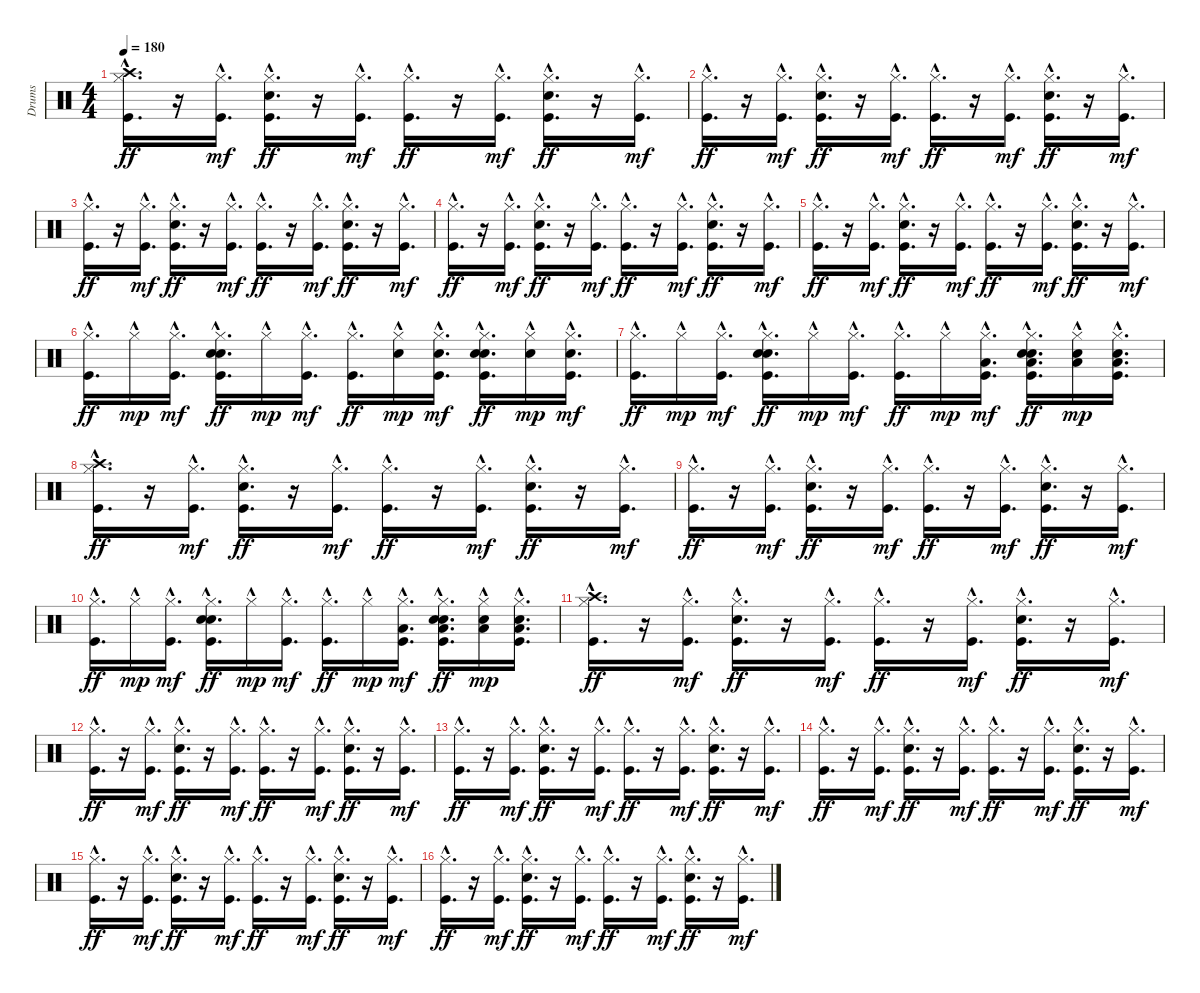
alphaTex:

\track ("Drums" "Drums") {instrument percussion}
\staff {score}
\articulation defaults
\ts (4 4)
\tempo 180
\clef neutral
\ks c
("Crash high (hit)"{hac} "Hi-Hat (closed)"{hac} "Kick (hit)"{hac}).16{d dy ff} r.16 ("Kick (hit)"{hac} "Hi-Hat (closed)"{hac}).16{d dy mf} ("Snare (hit) 2"{hac} "Hi-Hat (closed)"{hac} "Kick (hit)"{hac}).16{d dy ff} r.16 ("Kick (hit)"{hac} "Hi-Hat (closed)"{hac}).16{d dy mf} ("Kick (hit)"{hac} "Hi-Hat (closed)"{hac}).16{d dy ff} r.16 ("Kick (hit)"{hac} "Hi-Hat (closed)"{hac}).16{d dy mf} ("Hi-Hat (closed)"{hac} "Snare (hit) 2"{hac} "Kick (hit)"{hac}).16{d dy ff} r.16 ("Kick (hit)"{hac} "Hi-Hat (closed)"{hac}).16{d dy mf} |
("Kick (hit)"{hac} "Hi-Hat (closed)"{hac}).16{d dy ff} r.16 ("Kick (hit)"{hac} "Hi-Hat (closed)"{hac}).16{d dy mf} ("Kick (hit)"{hac} "Hi-Hat (closed)"{hac} "Snare (hit) 2"{hac}).16{d dy ff} r.16 ("Kick (hit)"{hac} "Hi-Hat (closed)"{hac}).16{d dy mf} ("Kick (hit)"{hac} "Hi-Hat (closed)"{hac}).16{d dy ff} r.16 ("Kick (hit)"{hac} "Hi-Hat (closed)"{hac}).16{d dy mf} ("Kick (hit)"{hac} "Hi-Hat (closed)"{hac} "Snare (hit) 2"{hac}).16{d dy ff} r.16 ("Hi-Hat (closed)"{hac} "Kick (hit)"{hac}).16{d dy mf} |
("Kick (hit)"{hac} "Hi-Hat (closed)"{hac}).16{d dy ff} r.16 ("Kick (hit)"{hac} "Hi-Hat (closed)"{hac}).16{d dy mf} ("Hi-Hat (closed)"{hac} "Snare (hit) 2"{hac} "Kick (hit)"{hac}).16{d dy ff} r.16 ("Hi-Hat (closed)"{hac} "Kick (hit)"{hac}).16{d dy mf} ("Kick (hit)"{hac} "Hi-Hat (closed)"{hac}).16{d dy ff} r.16 ("Kick (hit)"{hac} "Hi-Hat (closed)"{hac}).16{d dy mf} ("Hi-Hat (closed)"{hac} "Snare (hit) 2"{hac} "Kick (hit)"{hac}).16{d dy ff} r.16 ("Kick (hit)"{hac} "Hi-Hat (closed)"{hac}).16{d dy mf} |
("Kick (hit)"{hac} "Hi-Hat (closed)"{hac}).16{d dy ff} r.16 ("Kick (hit)"{hac} "Hi-Hat (closed)"{hac}).16{d dy mf} ("Kick (hit)"{hac} "Snare (hit) 2"{hac} "Hi-Hat (closed)"{hac}).16{d dy ff} r.16 ("Hi-Hat (closed)"{hac} "Kick (hit)"{hac}).16{d dy mf} ("Kick (hit)"{hac} "Hi-Hat (closed)"{hac}).16{d dy ff} r.16 ("Kick (hit)"{hac} "Hi-Hat (closed)"{hac}).16{d dy mf} ("Kick (hit)"{hac} "Snare (hit) 2"{hac} "Hi-Hat (closed)"{hac}).16{d dy ff} r.16 ("Hi-Hat (closed)"{hac} "Kick (hit)"{hac}).16{d dy mf} |
("Hi-Hat (closed)"{hac} "Kick (hit)"{hac}).16{d dy ff} r.16 ("Kick (hit)"{hac} "Hi-Hat (closed)"{hac}).16{d dy mf} ("Kick (hit)"{hac} "Snare (hit) 2"{hac} "Hi-Hat (closed)"{hac}).16{d dy ff} r.16 ("Kick (hit)"{hac} "Hi-Hat (closed)"{hac}).16{d dy mf} ("Hi-Hat (closed)"{hac} "Kick (hit)"{hac}).16{d dy ff} r.16 ("Kick (hit)"{hac} "Hi-Hat (closed)"{hac}).16{d dy mf} ("Kick (hit)"{hac} "Snare (hit) 2"{hac} "Hi-Hat (closed)"{hac}).16{d dy ff} r.16 ("Kick (hit)"{hac} "Hi-Hat (closed)"{hac}).16{d dy mf} |
("Kick (hit)"{hac} "Hi-Hat (closed)"{hac}).16{d dy ff} "Hi-Hat (closed)"{hac}.16{dy mp} ("Kick (hit)"{hac} "Hi-Hat (closed)"{hac}).16{d dy mf} ("Kick (hit)"{hac} "Snare (hit) 2"{hac} "Hi-Hat (closed)"{hac} "Hand Clap (hit)"{hac}).16{d dy ff} "Hi-Hat (closed)"{hac}.16{dy mp} ("Hi-Hat (closed)"{hac} "Kick (hit)"{hac}).16{d dy mf} ("Kick (hit)"{hac} "Hi-Hat (closed)"{hac}).16{d dy ff} ("Snare (hit) 2"{hac} "Hi-Hat (closed)"{hac}).16{dy mp} ("Hi-Hat (closed)"{hac} "Snare (hit) 2"{hac} "Kick (hit)"{hac}).16{d dy mf} ("Hand Clap (hit)"{hac} "Hi-Hat (closed)"{hac} "Kick (hit)"{hac} "Snare (hit) 2"{hac}).16{d dy ff} ("Snare (hit) 2"{hac} "Hi-Hat (closed)"{hac}).16{dy mp} ("Kick (hit)"{hac} "Snare (hit) 2"{hac} "Hi-Hat (closed)"{hac}).16{d dy mf} |
("Kick (hit)"{hac} "Hi-Hat (closed)"{hac}).16{d dy ff} "Hi-Hat (closed)"{hac}.16{dy mp} ("Kick (hit)"{hac} "Hi-Hat (closed)"{hac}).16{d dy mf} ("Hi-Hat (closed)"{hac} "Snare (hit) 2"{hac} "Kick (hit)"{hac} "Hand Clap (hit)"{hac}).16{d dy ff} "Hi-Hat (closed)"{hac}.16{dy mp} ("Hi-Hat (closed)"{hac} "Kick (hit)"{hac}).16{d dy mf} ("Hi-Hat (closed)"{hac} "Kick (hit)"{hac}).16{d dy ff} "Hi-Hat (closed)"{hac}.16{dy mp} ("Low Tom (hit)"{hac} "Hi-Hat (closed)"{hac} "Kick (hit)"{hac}).16{d dy mf} ("Low Tom (hit)"{hac} "Hand Clap (hit)"{hac} "Kick (hit)"{hac} "Snare (hit) 2"{hac} "Hi-Hat (closed)"{hac}).16{d dy ff} ("Low Tom (hit)"{hac} "Hi-Hat (closed)"{hac} "Snare (hit) 2"{hac}).16{dy mp} ("Kick (hit)"{hac} "Low Tom (hit)"{hac} "Hi-Hat (closed)"{hac} "Snare (hit) 2"{hac}).16{d} |
("Crash high (hit)"{hac} "Hi-Hat (closed)"{hac} "Kick (hit)"{hac}).16{d dy ff} r.16 ("Kick (hit)"{hac} "Hi-Hat (closed)"{hac}).16{d dy mf} ("Kick (hit)"{hac} "Snare (hit) 2"{hac} "Hi-Hat (closed)"{hac}).16{d dy ff} r.16 ("Kick (hit)"{hac} "Hi-Hat (closed)"{hac}).16{d dy mf} ("Hi-Hat (closed)"{hac} "Kick (hit)"{hac}).16{d dy ff} r.16 ("Kick (hit)"{hac} "Hi-Hat (closed)"{hac}).16{d dy mf} ("Kick (hit)"{hac} "Snare (hit) 2"{hac} "Hi-Hat (closed)"{hac}).16{d dy ff} r.16 ("Kick (hit)"{hac} "Hi-Hat (closed)"{hac}).16{d dy mf} |
("Kick (hit)"{hac} "Hi-Hat (closed)"{hac}).16{d dy ff} r.16 ("Kick (hit)"{hac} "Hi-Hat (closed)"{hac}).16{d dy mf} ("Hi-Hat (closed)"{hac} "Snare (hit) 2"{hac} "Kick (hit)"{hac}).16{d dy ff} r.16 ("Kick (hit)"{hac} "Hi-Hat (closed)"{hac}).16{d dy mf} ("Hi-Hat (closed)"{hac} "Kick (hit)"{hac}).16{d dy ff} r.16 ("Kick (hit)"{hac} "Hi-Hat (closed)"{hac}).16{d dy mf} ("Hi-Hat (closed)"{hac} "Snare (hit) 2"{hac} "Kick (hit)"{hac}).16{d dy ff} r.16 ("Kick (hit)"{hac} "Hi-Hat (closed)"{hac}).16{d dy mf} |
("Hi-Hat (closed)"{hac} "Kick (hit)"{hac}).16{d dy ff} "Hi-Hat (closed)"{hac}.16{dy mp} ("Kick (hit)"{hac} "Hi-Hat (closed)"{hac}).16{d dy mf} ("Hi-Hat (closed)"{hac} "Snare (hit) 2"{hac} "Kick (hit)"{hac} "Hand Clap (hit)"{hac}).16{d dy ff} "Hi-Hat (closed)"{hac}.16{dy mp} ("Hi-Hat (closed)"{hac} "Kick (hit)"{hac}).16{d dy mf} ("Kick (hit)"{hac} "Hi-Hat (closed)"{hac}).16{d dy ff} "Hi-Hat (closed)"{hac}.16{dy mp} ("Kick (hit)"{hac} "Hi-Hat (closed)"{hac} "Low Tom (hit)"{hac}).16{d dy mf} ("Hand Clap (hit)"{hac} "Low Tom (hit)"{hac} "Kick (hit)"{hac} "Snare (hit) 2"{hac} "Hi-Hat (closed)"{hac}).16{d dy ff} ("Low Tom (hit)"{hac} "Hi-Hat (closed)"{hac} "Snare (hit) 2"{hac}).16{dy mp} ("Kick (hit)"{hac} "Low Tom (hit)"{hac} "Hi-Hat (closed)"{hac} "Snare (hit) 2"{hac}).16{d} |
("Hi-Hat (closed)"{hac} "Kick (hit)"{hac} "Crash high (hit)"{hac}).16{d dy ff} r.16 ("Kick (hit)"{hac} "Hi-Hat (closed)"{hac}).16{d dy mf} ("Kick (hit)"{hac} "Snare (hit) 2"{hac} "Hi-Hat (closed)"{hac}).16{d dy ff} r.16 ("Hi-Hat (closed)"{hac} "Kick (hit)"{hac}).16{d dy mf} ("Hi-Hat (closed)"{hac} "Kick (hit)"{hac}).16{d dy ff} r.16 ("Kick (hit)"{hac} "Hi-Hat (closed)"{hac}).16{d dy mf} ("Kick (hit)"{hac} "Snare (hit) 2"{hac} "Hi-Hat (closed)"{hac}).16{d dy ff} r.16 ("Kick (hit)"{hac} "Hi-Hat (closed)"{hac}).16{d dy mf} |
("Hi-Hat (closed)"{hac} "Kick (hit)"{hac}).16{d dy ff} r.16 ("Kick (hit)"{hac} "Hi-Hat (closed)"{hac}).16{d dy mf} ("Kick (hit)"{hac} "Snare (hit) 2"{hac} "Hi-Hat (closed)"{hac}).16{d dy ff} r.16 ("Kick (hit)"{hac} "Hi-Hat (closed)"{hac}).16{d dy mf} ("Kick (hit)"{hac} "Hi-Hat (closed)"{hac}).16{d dy ff} r.16 ("Kick (hit)"{hac} "Hi-Hat (closed)"{hac}).16{d dy mf} ("Hi-Hat (closed)"{hac} "Snare (hit) 2"{hac} "Kick (hit)"{hac}).16{d dy ff} r.16 ("Kick (hit)"{hac} "Hi-Hat (closed)"{hac}).16{d dy mf} |
("Hi-Hat (closed)"{hac} "Kick (hit)"{hac}).16{d dy ff} r.16 ("Kick (hit)"{hac} "Hi-Hat (closed)"{hac}).16{d dy mf} ("Hi-Hat (closed)"{hac} "Snare (hit) 2"{hac} "Kick (hit)"{hac}).16{d dy ff} r.16 ("Kick (hit)"{hac} "Hi-Hat (closed)"{hac}).16{d dy mf} ("Hi-Hat (closed)"{hac} "Kick (hit)"{hac}).16{d dy ff} r.16 ("Kick (hit)"{hac} "Hi-Hat (closed)"{hac}).16{d dy mf} ("Snare (hit) 2"{hac} "Kick (hit)"{hac} "Hi-Hat (closed)"{hac}).16{d dy ff} r.16 ("Kick (hit)"{hac} "Hi-Hat (closed)"{hac}).16{d dy mf} |
("Kick (hit)"{hac} "Hi-Hat (closed)"{hac}).16{d dy ff} r.16 ("Kick (hit)"{hac} "Hi-Hat (closed)"{hac}).16{d dy mf} ("Snare (hit) 2"{hac} "Kick (hit)"{hac} "Hi-Hat (closed)"{hac}).16{d dy ff} r.16 ("Kick (hit)"{hac} "Hi-Hat (closed)"{hac}).16{d dy mf} ("Kick (hit)"{hac} "Hi-Hat (closed)"{hac}).16{d dy ff} r.16 ("Kick (hit)"{hac} "Hi-Hat (closed)"{hac}).16{d dy mf} ("Hi-Hat (closed)"{hac} "Snare (hit) 2"{hac} "Kick (hit)"{hac}).16{d dy ff} r.16 ("Kick (hit)"{hac} "Hi-Hat (closed)"{hac}).16{d dy mf} |
("Kick (hit)"{hac} "Hi-Hat (closed)"{hac}).16{d dy ff} r.16 ("Kick (hit)"{hac} "Hi-Hat (closed)"{hac}).16{d dy mf} ("Snare (hit) 2"{hac} "Hi-Hat (closed)"{hac} "Kick (hit)"{hac}).16{d dy ff} r.16 ("Kick (hit)"{hac} "Hi-Hat (closed)"{hac}).16{d dy mf} ("Kick (hit)"{hac} "Hi-Hat (closed)"{hac}).16{d dy ff} r.16 ("Kick (hit)"{hac} "Hi-Hat (closed)"{hac}).16{d dy mf} ("Hi-Hat (closed)"{hac} "Snare (hit) 2"{hac} "Kick (hit)"{hac}).16{d dy ff} r.16 ("Kick (hit)"{hac} "Hi-Hat (closed)"{hac}).16{d dy mf} |
("Kick (hit)"{hac} "Hi-Hat (closed)"{hac}).16{d dy ff} r.16 ("Kick (hit)"{hac} "Hi-Hat (closed)"{hac}).16{d dy mf} ("Kick (hit)"{hac} "Hi-Hat (closed)"{hac} "Snare (hit) 2"{hac}).16{d dy ff} r.16 ("Kick (hit)"{hac} "Hi-Hat (closed)"{hac}).16{d dy mf} ("Kick (hit)"{hac} "Hi-Hat (closed)"{hac}).16{d dy ff} r.16 ("Kick (hit)"{hac} "Hi-Hat (closed)"{hac}).16{d dy mf} ("Kick (hit)"{hac} "Hi-Hat (closed)"{hac} "Snare (hit) 2"{hac}).16{d dy ff} r.16 ("Hi-Hat (closed)"{hac} "Kick (hit)"{hac}).16{d dy mf}
